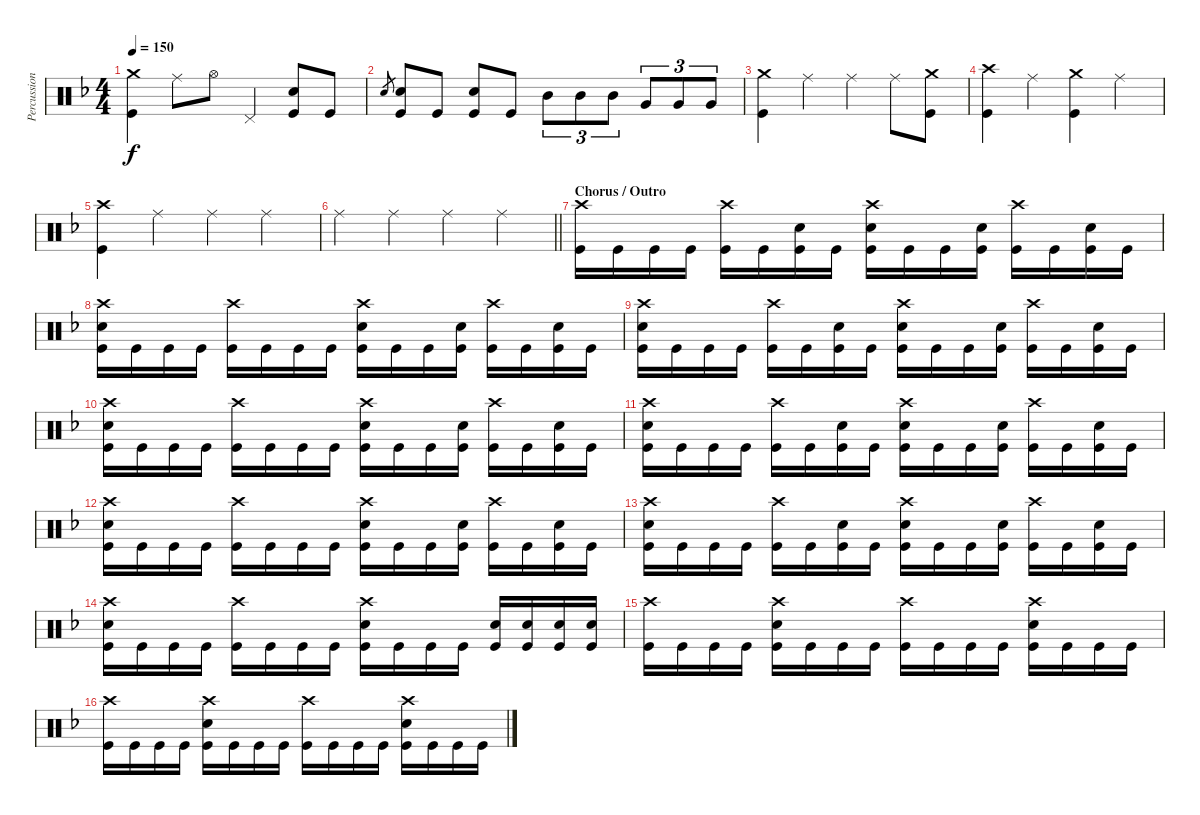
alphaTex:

\track ("Percussion" "Percussion") {instrument percussion}
\staff {score}
\articulation defaults
\ts (4 4)
\tempo 150
\clef neutral
\ks f
("Crash medium (hit)" "Kick (hit)").4{dy f} "Ride (middle)".8 "Hi-Hat (open)".8 "Pedal Hi-Hat (hit)".4 ("Electric Snare (hit)" "Kick (hit)").8 "Kick (hit)".8 |
"Electric Snare (hit)".8{gr} ("Electric Snare (hit)" "Kick (hit)").8 "Kick (hit)".8 ("Electric Snare (hit)" "Kick (hit)").8 "Kick (hit)".8 "Mid Tom (hit)".8{tu (3 2)} "Mid Tom (hit)".8{tu (3 2)} "Mid Tom (hit)".8{tu (3 2)} "Very Low Tom (hit)".8{tu (3 2)} "Very Low Tom (hit)".8{tu (3 2)} "Very Low Tom (hit)".8{tu (3 2)} |
("Crash medium (hit)" "Kick (hit)").4 "Ride (middle)".4 "Ride (middle)".4 "Ride (middle)".8 ("Crash medium (hit)" "Kick (hit)").8 |
("Crash high (hit)" "Kick (hit)").4 "Ride (middle)".4 ("Crash medium (hit)" "Kick (hit)").4 "Ride (middle)".4 |
("Crash high (hit)" "Kick (hit)").4 "Ride (middle)".4 "Ride (middle)".4 "Ride (middle)".4 |
\barLineRight lightlight "Ride (middle)".4 "Ride (middle)".4 "Ride (middle)".4 "Ride (middle)".4
|
\section ("" "Chorus / Outro")
("Crash high (hit)" "Kick (hit)").16 "Kick (hit)".16 "Kick (hit)".16 "Kick (hit)".16 ("Crash high (hit)" "Kick (hit)").16 "Kick (hit)".16 ("Electric Snare (hit)" "Kick (hit)").16 "Kick (hit)".16 ("Crash high (hit)" "Electric Snare (hit)" "Kick (hit)").16 "Kick (hit)".16 "Kick (hit)".16 ("Electric Snare (hit)" "Kick (hit)").16 ("Crash high (hit)" "Kick (hit)").16 "Kick (hit)".16 ("Electric Snare (hit)" "Kick (hit)").16 "Kick (hit)".16 |
("Crash high (hit)" "Electric Snare (hit)" "Kick (hit)").16 "Kick (hit)".16 "Kick (hit)".16 "Kick (hit)".16 ("Crash high (hit)" "Kick (hit)").16 "Kick (hit)".16 "Kick (hit)".16 "Kick (hit)".16 ("Crash high (hit)" "Electric Snare (hit)" "Kick (hit)").16 "Kick (hit)".16 "Kick (hit)".16 ("Electric Snare (hit)" "Kick (hit)").16 ("Crash high (hit)" "Kick (hit)").16 "Kick (hit)".16 ("Electric Snare (hit)" "Kick (hit)").16 "Kick (hit)".16 |
("Crash high (hit)" "Electric Snare (hit)" "Kick (hit)").16 "Kick (hit)".16 "Kick (hit)".16 "Kick (hit)".16 ("Crash high (hit)" "Kick (hit)").16 "Kick (hit)".16 ("Electric Snare (hit)" "Kick (hit)").16 "Kick (hit)".16 ("Crash high (hit)" "Electric Snare (hit)" "Kick (hit)").16 "Kick (hit)".16 "Kick (hit)".16 ("Electric Snare (hit)" "Kick (hit)").16 ("Crash high (hit)" "Kick (hit)").16 "Kick (hit)".16 ("Electric Snare (hit)" "Kick (hit)").16 "Kick (hit)".16 |
("Crash high (hit)" "Electric Snare (hit)" "Kick (hit)").16 "Kick (hit)".16 "Kick (hit)".16 "Kick (hit)".16 ("Crash high (hit)" "Kick (hit)").16 "Kick (hit)".16 "Kick (hit)".16 "Kick (hit)".16 ("Crash high (hit)" "Electric Snare (hit)" "Kick (hit)").16 "Kick (hit)".16 "Kick (hit)".16 ("Electric Snare (hit)" "Kick (hit)").16 ("Crash high (hit)" "Kick (hit)").16 "Kick (hit)".16 ("Electric Snare (hit)" "Kick (hit)").16 "Kick (hit)".16 |
("Crash high (hit)" "Electric Snare (hit)" "Kick (hit)").16 "Kick (hit)".16 "Kick (hit)".16 "Kick (hit)".16 ("Crash high (hit)" "Kick (hit)").16 "Kick (hit)".16 ("Electric Snare (hit)" "Kick (hit)").16 "Kick (hit)".16 ("Crash high (hit)" "Electric Snare (hit)" "Kick (hit)").16 "Kick (hit)".16 "Kick (hit)".16 ("Electric Snare (hit)" "Kick (hit)").16 ("Crash high (hit)" "Kick (hit)").16 "Kick (hit)".16 ("Electric Snare (hit)" "Kick (hit)").16 "Kick (hit)".16 |
("Crash high (hit)" "Electric Snare (hit)" "Kick (hit)").16 "Kick (hit)".16 "Kick (hit)".16 "Kick (hit)".16 ("Crash high (hit)" "Kick (hit)").16 "Kick (hit)".16 "Kick (hit)".16 "Kick (hit)".16 ("Crash high (hit)" "Electric Snare (hit)" "Kick (hit)").16 "Kick (hit)".16 "Kick (hit)".16 ("Electric Snare (hit)" "Kick (hit)").16 ("Crash high (hit)" "Kick (hit)").16 "Kick (hit)".16 ("Electric Snare (hit)" "Kick (hit)").16 "Kick (hit)".16 |
("Crash high (hit)" "Electric Snare (hit)" "Kick (hit)").16 "Kick (hit)".16 "Kick (hit)".16 "Kick (hit)".16 ("Crash high (hit)" "Kick (hit)").16 "Kick (hit)".16 ("Electric Snare (hit)" "Kick (hit)").16 "Kick (hit)".16 ("Crash high (hit)" "Electric Snare (hit)" "Kick (hit)").16 "Kick (hit)".16 "Kick (hit)".16 ("Electric Snare (hit)" "Kick (hit)").16 ("Crash high (hit)" "Kick (hit)").16 "Kick (hit)".16 ("Electric Snare (hit)" "Kick (hit)").16 "Kick (hit)".16 |
("Crash high (hit)" "Electric Snare (hit)" "Kick (hit)").16 "Kick (hit)".16 "Kick (hit)".16 "Kick (hit)".16 ("Crash high (hit)" "Kick (hit)").16 "Kick (hit)".16 "Kick (hit)".16 "Kick (hit)".16 ("Crash high (hit)" "Electric Snare (hit)" "Kick (hit)").16 "Kick (hit)".16 "Kick (hit)".16 "Kick (hit)".16 ("Electric Snare (hit)" "Kick (hit)").16 ("Electric Snare (hit)" "Kick (hit)").16 ("Electric Snare (hit)" "Kick (hit)").16 ("Electric Snare (hit)" "Kick (hit)").16 |
("Crash high (hit)" "Kick (hit)").16 "Kick (hit)".16 "Kick (hit)".16 "Kick (hit)".16 ("Crash high (hit)" "Electric Snare (hit)" "Kick (hit)").16 "Kick (hit)".16 "Kick (hit)".16 "Kick (hit)".16 ("Crash high (hit)" "Kick (hit)").16 "Kick (hit)".16 "Kick (hit)".16 "Kick (hit)".16 ("Crash high (hit)" "Electric Snare (hit)" "Kick (hit)").16 "Kick (hit)".16 "Kick (hit)".16 "Kick (hit)".16 |
("Crash high (hit)" "Kick (hit)").16 "Kick (hit)".16 "Kick (hit)".16 "Kick (hit)".16 ("Crash high (hit)" "Electric Snare (hit)" "Kick (hit)").16 "Kick (hit)".16 "Kick (hit)".16 "Kick (hit)".16 ("Crash high (hit)" "Kick (hit)").16 "Kick (hit)".16 "Kick (hit)".16 "Kick (hit)".16 ("Crash high (hit)" "Electric Snare (hit)" "Kick (hit)").16 "Kick (hit)".16 "Kick (hit)".16 "Kick (hit)".16
